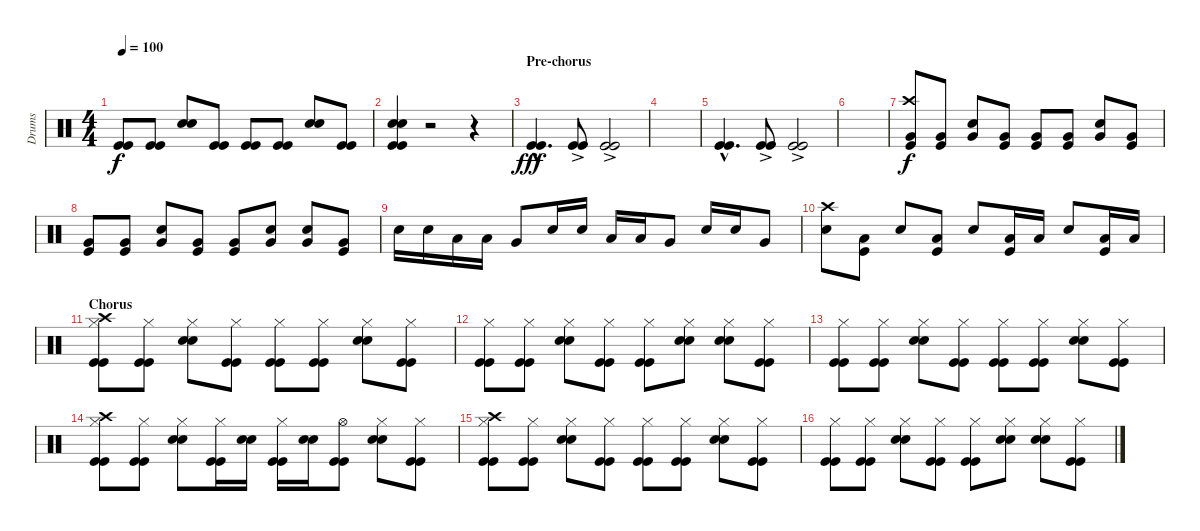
\track ("Drums" "Drums") {instrument percussion}
\staff {score}
\articulation defaults
\ts (4 4)
\tempo 100
\clef neutral
\ks c
("Kick (hit)" "Kick (hit)").8{dy f} ("Kick (hit)" "Kick (hit)").8 ("Snare (hit) 2" "Snare (hit) 2").8 ("Kick (hit)" "Kick (hit)").8 ("Kick (hit)" "Kick (hit)").8 ("Kick (hit)" "Kick (hit)").8 ("Snare (hit) 2" "Snare (hit) 2").8 ("Kick (hit)" "Kick (hit)").8 |
("Snare (hit) 2" "Snare (hit) 2" "Kick (hit)" "Kick (hit)").4 r.2 r.4 |
\section ("" "Pre-chorus")
("Kick (hit)"{hac} "Kick (hit)"{hac}).4{d dy fff} ("Kick (hit)"{ac} "Kick (hit)").8 ("Kick (hit)"{ac} "Kick (hit)").2 |
|
("Kick (hit)"{hac} "Kick (hit)"{hac}).4{d} ("Kick (hit)"{ac} "Kick (hit)").8 ("Kick (hit)"{ac} "Kick (hit)").2 |
|
("Crash high (hit)" "Very Low Tom (hit)" "Kick (hit)").8{dy f} ("Very Low Tom (hit)" "Kick (hit)").8 ("Very Low Tom (hit)" "Snare (hit) 2").8 ("Very Low Tom (hit)" "Kick (hit)").8 ("Very Low Tom (hit)" "Kick (hit)").8 ("Very Low Tom (hit)" "Kick (hit)").8 ("Very Low Tom (hit)" "Snare (hit) 2").8 ("Very Low Tom (hit)" "Kick (hit)").8 |
("Very Low Tom (hit)" "Kick (hit)").8 ("Very Low Tom (hit)" "Kick (hit)").8 ("Very Low Tom (hit)" "Snare (hit) 2").8 ("Very Low Tom (hit)" "Kick (hit)").8 ("Very Low Tom (hit)" "Kick (hit)").8 ("Very Low Tom (hit)" "Snare (hit) 2").8 ("Very Low Tom (hit)" "Snare (hit) 2").8 ("Very Low Tom (hit)" "Kick (hit)").8 |
"Snare (hit) 2".16 "Snare (hit) 2".16 "Low Tom (hit)".16 "Low Tom (hit)".16 "Very Low Tom (hit)".8 "Snare (hit) 2".16 "Snare (hit) 2".16 "Low Tom (hit)".16 "Low Tom (hit)".16 "Very Low Tom (hit)".8 "Snare (hit) 2".16 "Snare (hit) 2".16 "Very Low Tom (hit)".8 |
("Crash high (hit)" "Snare (hit) 2").8 ("Low Tom (hit)" "Kick (hit)").8 "Snare (hit) 2".8 ("Low Tom (hit)" "Kick (hit)").8 "Snare (hit) 2".8 ("Low Tom (hit)" "Kick (hit)").16 "Low Tom (hit)".16 "Snare (hit) 2".8 ("Low Tom (hit)" "Kick (hit)").16 "Low Tom (hit)".16 |
\section ("" "Chorus")
("Crash high (hit)" "Hi-Hat (closed)" "Kick (hit)" "Kick (hit)").8 ("Hi-Hat (closed)" "Kick (hit)" "Kick (hit)").8 ("Hi-Hat (closed)" "Snare (hit) 2" "Snare (hit) 2").8 ("Hi-Hat (closed)" "Kick (hit)" "Kick (hit)").8 ("Hi-Hat (closed)" "Kick (hit)" "Kick (hit)").8 ("Hi-Hat (closed)" "Kick (hit)" "Kick (hit)").8 ("Hi-Hat (closed)" "Snare (hit) 2" "Snare (hit) 2").8 ("Hi-Hat (closed)" "Kick (hit)" "Kick (hit)").8 |
("Hi-Hat (closed)" "Kick (hit)" "Kick (hit)").8 ("Hi-Hat (closed)" "Kick (hit)" "Kick (hit)").8 ("Hi-Hat (closed)" "Snare (hit) 2" "Snare (hit) 2").8 ("Hi-Hat (closed)" "Kick (hit)" "Kick (hit)").8 ("Hi-Hat (closed)" "Kick (hit)" "Kick (hit)").8 ("Hi-Hat (closed)" "Snare (hit) 2" "Snare (hit) 2").8 ("Hi-Hat (closed)" "Snare (hit) 2" "Snare (hit) 2").8 ("Hi-Hat (closed)" "Kick (hit)" "Kick (hit)").8 |
("Hi-Hat (closed)" "Kick (hit)" "Kick (hit)").8 ("Hi-Hat (closed)" "Kick (hit)" "Kick (hit)").8 ("Hi-Hat (closed)" "Snare (hit) 2" "Snare (hit) 2").8 ("Hi-Hat (closed)" "Kick (hit)" "Kick (hit)").8 ("Hi-Hat (closed)" "Kick (hit)" "Kick (hit)").8 ("Hi-Hat (closed)" "Kick (hit)" "Kick (hit)").8 ("Hi-Hat (closed)" "Snare (hit) 2" "Snare (hit) 2").8 ("Hi-Hat (closed)" "Kick (hit)" "Kick (hit)").8 |
("Crash high (hit)" "Hi-Hat (closed)" "Kick (hit)" "Kick (hit)").8 ("Hi-Hat (closed)" "Kick (hit)" "Kick (hit)").8 ("Hi-Hat (closed)" "Snare (hit) 2" "Snare (hit) 2").8 ("Hi-Hat (closed)" "Kick (hit)" "Kick (hit)").16 ("Snare (hit) 2" "Snare (hit) 2").16 ("Hi-Hat (closed)" "Kick (hit)" "Kick (hit)").16 ("Snare (hit) 2" "Snare (hit) 2").16 ("Hi-Hat (open)" "Kick (hit)" "Kick (hit)").8 ("Hi-Hat (closed)" "Snare (hit) 2" "Snare (hit) 2").8 ("Hi-Hat (closed)" "Kick (hit)" "Kick (hit)").8 |
("Crash high (hit)" "Hi-Hat (closed)" "Kick (hit)" "Kick (hit)").8 ("Hi-Hat (closed)" "Kick (hit)" "Kick (hit)").8 ("Hi-Hat (closed)" "Snare (hit) 2" "Snare (hit) 2").8 ("Hi-Hat (closed)" "Kick (hit)" "Kick (hit)").8 ("Hi-Hat (closed)" "Kick (hit)" "Kick (hit)").8 ("Hi-Hat (closed)" "Kick (hit)" "Kick (hit)").8 ("Hi-Hat (closed)" "Snare (hit) 2" "Snare (hit) 2").8 ("Hi-Hat (closed)" "Kick (hit)" "Kick (hit)").8 |
("Hi-Hat (closed)" "Kick (hit)" "Kick (hit)").8 ("Hi-Hat (closed)" "Kick (hit)" "Kick (hit)").8 ("Hi-Hat (closed)" "Snare (hit) 2" "Snare (hit) 2").8 ("Hi-Hat (closed)" "Kick (hit)" "Kick (hit)").8 ("Hi-Hat (closed)" "Kick (hit)" "Kick (hit)").8 ("Hi-Hat (closed)" "Snare (hit) 2" "Snare (hit) 2").8 ("Hi-Hat (closed)" "Snare (hit) 2" "Snare (hit) 2").8 ("Hi-Hat (closed)" "Kick (hit)" "Kick (hit)").8
